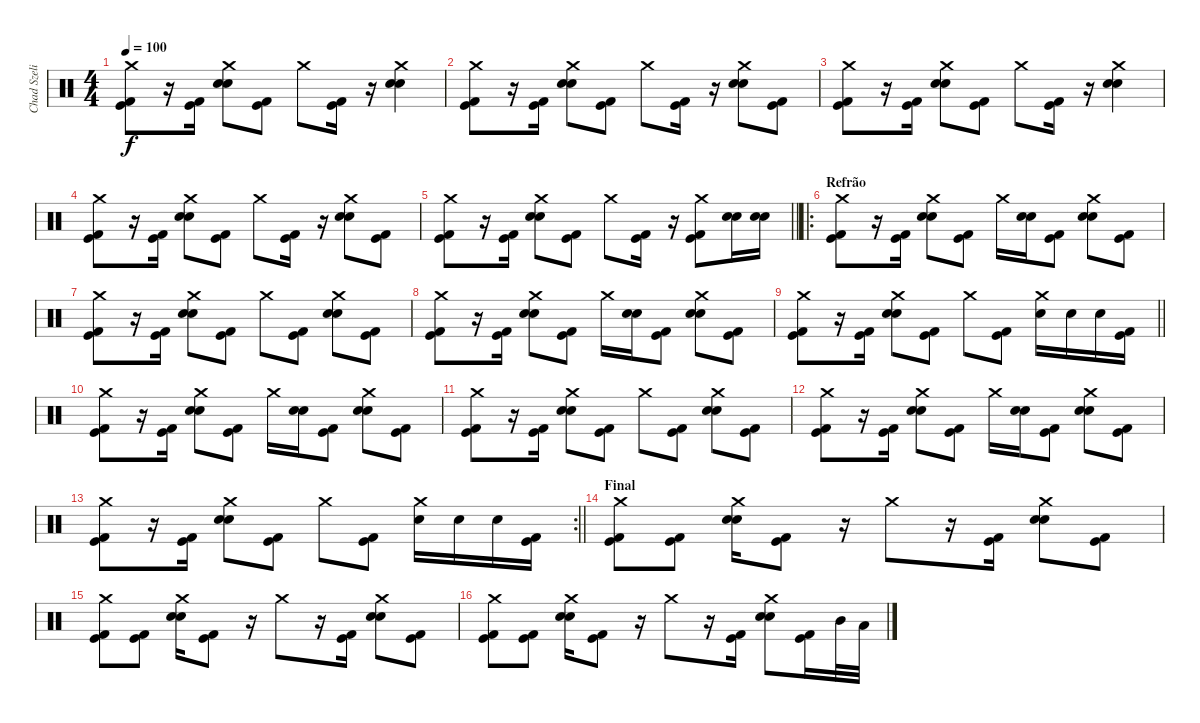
\track ("Chad Szeliga" "Chad Szeli") {instrument percussion}
\staff {score}
\articulation defaults
\ts (4 4)
\tempo 100
\clef neutral
\ks c
("Crash medium (hit)" "Kick (hit) 2" "Kick (hit)").8{dy f} r.16 ("Kick (hit) 2" "Kick (hit)").16 ("Crash medium (hit)" "Snare (hit) 2" "Snare (hit) 2").8 ("Kick (hit) 2" "Kick (hit)").8 "Crash medium (hit)".8 ("Kick (hit) 2" "Kick (hit)").16 r.16 ("Crash medium (hit)" "Snare (hit) 2" "Snare (hit) 2").4 |
("Crash medium (hit)" "Kick (hit) 2" "Kick (hit)").8 r.16 ("Kick (hit) 2" "Kick (hit)").16{beam Down} ("Crash medium (hit)" "Snare (hit) 2" "Snare (hit) 2").8 ("Kick (hit) 2" "Kick (hit)").8 "Crash medium (hit)".8 ("Kick (hit) 2" "Kick (hit)").16 r.16 ("Crash medium (hit)" "Snare (hit) 2" "Snare (hit) 2").8 ("Kick (hit) 2" "Kick (hit)").8 |
("Crash medium (hit)" "Kick (hit) 2" "Kick (hit)").8 r.16 ("Kick (hit) 2" "Kick (hit)").16 ("Crash medium (hit)" "Snare (hit) 2" "Snare (hit) 2").8 ("Kick (hit) 2" "Kick (hit)").8 "Crash medium (hit)".8 ("Kick (hit) 2" "Kick (hit)").16 r.16 ("Crash medium (hit)" "Snare (hit) 2" "Snare (hit) 2").4 |
("Crash medium (hit)" "Kick (hit) 2" "Kick (hit)").8 r.16 ("Kick (hit) 2" "Kick (hit)").16{beam Down} ("Crash medium (hit)" "Snare (hit) 2" "Snare (hit) 2").8 ("Kick (hit) 2" "Kick (hit)").8 "Crash medium (hit)".8 ("Kick (hit) 2" "Kick (hit)").16 r.16 ("Crash medium (hit)" "Snare (hit) 2" "Snare (hit) 2").8 ("Kick (hit) 2" "Kick (hit)").8 |
\barLineRight lightlight
("Crash medium (hit)" "Kick (hit) 2" "Kick (hit)").8 r.16 ("Kick (hit) 2" "Kick (hit)").16 ("Crash medium (hit)" "Snare (hit) 2" "Snare (hit) 2").8 ("Kick (hit) 2" "Kick (hit)").8 "Crash medium (hit)".8 ("Kick (hit) 2" "Kick (hit)").16 r.16 ("Crash medium (hit)" "Kick (hit) 2" "Kick (hit)").8 ("Snare (hit) 2" "Snare (hit) 2").16 ("Snare (hit) 2" "Snare (hit) 2").16 |
\ro
\section ("" "Refrão")
("Crash medium (hit)" "Kick (hit) 2" "Kick (hit)").8 r.16 ("Kick (hit) 2" "Kick (hit)").16{beam Down} ("Crash medium (hit)" "Snare (hit) 2" "Snare (hit) 2").8 ("Kick (hit) 2" "Kick (hit)").8 "Crash medium (hit)".16 ("Snare (hit) 2" "Snare (hit) 2").16 ("Kick (hit) 2" "Kick (hit)").8 ("Crash medium (hit)" "Snare (hit) 2" "Snare (hit) 2").8 ("Kick (hit) 2" "Kick (hit)").8 |
("Crash medium (hit)" "Kick (hit) 2" "Kick (hit)").8 r.16 ("Kick (hit) 2" "Kick (hit)").16{beam Down} ("Crash medium (hit)" "Snare (hit) 2" "Snare (hit) 2").8 ("Kick (hit) 2" "Kick (hit)").8 "Crash medium (hit)".8 ("Kick (hit) 2" "Kick (hit)").8 ("Crash medium (hit)" "Snare (hit) 2" "Snare (hit) 2").8 ("Kick (hit) 2" "Kick (hit)").8 |
("Crash medium (hit)" "Kick (hit) 2" "Kick (hit)").8 r.16 ("Kick (hit) 2" "Kick (hit)").16{beam Down} ("Crash medium (hit)" "Snare (hit) 2" "Snare (hit) 2").8 ("Kick (hit) 2" "Kick (hit)").8 "Crash medium (hit)".16 ("Snare (hit) 2" "Snare (hit) 2").16 ("Kick (hit) 2" "Kick (hit)").8 ("Crash medium (hit)" "Snare (hit) 2" "Snare (hit) 2").8 ("Kick (hit) 2" "Kick (hit)").8 |
\barLineRight lightlight
("Crash medium (hit)" "Kick (hit) 2" "Kick (hit)").8 r.16 ("Kick (hit) 2" "Kick (hit)").16{beam Down} ("Crash medium (hit)" "Snare (hit) 2" "Snare (hit) 2").8 ("Kick (hit) 2" "Kick (hit)").8 "Crash medium (hit)".8 ("Kick (hit) 2" "Kick (hit)").8 ("Crash medium (hit)" "Snare (hit) 2").16 "Snare (hit) 2".16 "Snare (hit) 2".16 ("Kick (hit) 2" "Kick (hit)").16 |
("Crash medium (hit)" "Kick (hit) 2" "Kick (hit)").8 r.16 ("Kick (hit) 2" "Kick (hit)").16{beam Down} ("Crash medium (hit)" "Snare (hit) 2" "Snare (hit) 2").8 ("Kick (hit) 2" "Kick (hit)").8 "Crash medium (hit)".16 ("Snare (hit) 2" "Snare (hit) 2").16 ("Kick (hit) 2" "Kick (hit)").8 ("Crash medium (hit)" "Snare (hit) 2" "Snare (hit) 2").8 ("Kick (hit) 2" "Kick (hit)").8 |
("Crash medium (hit)" "Kick (hit) 2" "Kick (hit)").8 r.16 ("Kick (hit) 2" "Kick (hit)").16{beam Down} ("Crash medium (hit)" "Snare (hit) 2" "Snare (hit) 2").8 ("Kick (hit) 2" "Kick (hit)").8 "Crash medium (hit)".8 ("Kick (hit) 2" "Kick (hit)").8 ("Crash medium (hit)" "Snare (hit) 2" "Snare (hit) 2").8 ("Kick (hit) 2" "Kick (hit)").8 |
("Crash medium (hit)" "Kick (hit) 2" "Kick (hit)").8 r.16 ("Kick (hit) 2" "Kick (hit)").16{beam Down} ("Crash medium (hit)" "Snare (hit) 2" "Snare (hit) 2").8 ("Kick (hit) 2" "Kick (hit)").8 "Crash medium (hit)".16 ("Snare (hit) 2" "Snare (hit) 2").16 ("Kick (hit) 2" "Kick (hit)").8 ("Crash medium (hit)" "Snare (hit) 2" "Snare (hit) 2").8 ("Kick (hit) 2" "Kick (hit)").8 |
\rc 2
\barLineRight lightlight
("Crash medium (hit)" "Kick (hit) 2" "Kick (hit)").8 r.16 ("Kick (hit) 2" "Kick (hit)").16{beam Down} ("Crash medium (hit)" "Snare (hit) 2" "Snare (hit) 2").8 ("Kick (hit) 2" "Kick (hit)").8 "Crash medium (hit)".8 ("Kick (hit) 2" "Kick (hit)").8 ("Crash medium (hit)" "Snare (hit) 2").16 "Snare (hit) 2".16 "Snare (hit) 2".16 ("Kick (hit) 2" "Kick (hit)").16 |
\section ("" "Final")
("Crash medium (hit)" "Kick (hit) 2" "Kick (hit)").8 ("Kick (hit) 2" "Kick (hit)").8 ("Crash medium (hit)" "Snare (hit) 2" "Snare (hit) 2").16 ("Kick (hit) 2" "Kick (hit)").8 r.16 "Crash medium (hit)".8 r.16 ("Kick (hit) 2" "Kick (hit)").16{beam Down} ("Crash medium (hit)" "Snare (hit) 2" "Snare (hit) 2").8 ("Kick (hit) 2" "Kick (hit)").8 |
("Crash medium (hit)" "Kick (hit) 2" "Kick (hit)").8 ("Kick (hit) 2" "Kick (hit)").8 ("Crash medium (hit)" "Snare (hit) 2" "Snare (hit) 2").16 ("Kick (hit) 2" "Kick (hit)").8 r.16 "Crash medium (hit)".8 r.16 ("Kick (hit) 2" "Kick (hit)").16{beam Down} ("Crash medium (hit)" "Snare (hit) 2" "Snare (hit) 2").8 ("Kick (hit) 2" "Kick (hit)").8 |
("Crash medium (hit)" "Kick (hit) 2" "Kick (hit)").8 ("Kick (hit) 2" "Kick (hit)").8 ("Crash medium (hit)" "Snare (hit) 2" "Snare (hit) 2").16 ("Kick (hit) 2" "Kick (hit)").8 r.16 "Crash medium (hit)".8 r.16 ("Kick (hit) 2" "Kick (hit)").16{beam Down} ("Crash medium (hit)" "Snare (hit) 2" "Snare (hit) 2").8 ("Kick (hit) 2" "Kick (hit)").16 "Mid Tom (hit)".32 "Low Tom (hit)".32
